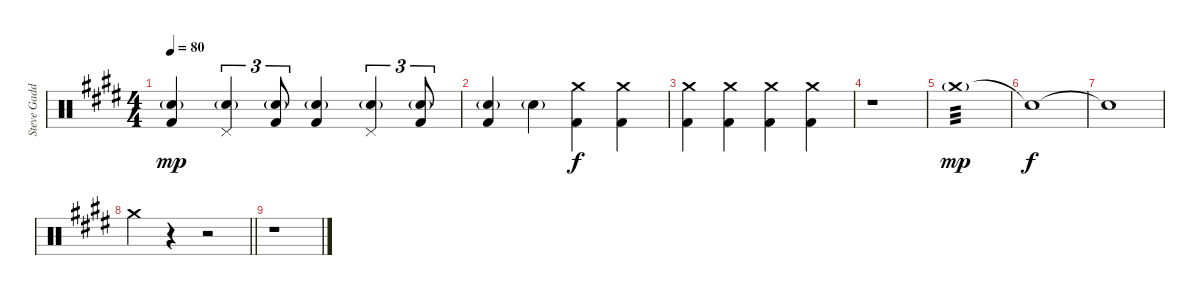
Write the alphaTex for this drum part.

\track ("Steve Gadd Drums" "Steve Gadd") {instrument percussion}
\staff {score}
\articulation defaults
\ts (4 4)
\tempo 80
\clef neutral
\ks e
("Snare (hit) 2"{g} "Kick (hit) 2").4{dy mp} ("Snare (hit) 2"{g} "Pedal Hi-Hat (hit)").4{tu (3 2)} ("Snare (hit) 2"{g} "Kick (hit) 2").8{tu (3 2)} ("Snare (hit) 2"{g} "Kick (hit) 2").4 ("Snare (hit) 2"{g} "Pedal Hi-Hat (hit)").4{tu (3 2)} ("Snare (hit) 2"{g} "Kick (hit) 2").8{tu (3 2)} |
("Snare (hit) 2"{g} "Kick (hit) 2").4 "Snare (hit) 2"{g}.4 ("Crash medium (hit)" "Kick (hit) 2").4{dy f} ("Crash medium (hit)" "Kick (hit) 2").4 |
("Crash medium (hit)" "Kick (hit) 2").4 ("Crash medium (hit)" "Kick (hit) 2").4 ("Crash medium (hit)" "Kick (hit) 2").4 ("Crash medium (hit)" "Kick (hit) 2").4 |
r.1 |
"Crash medium (hit)"{g}.1{tp 3 dy mp} |
"Snare (hit)"{t}.1{dy f} |
"Snare (hit)"{t}.1 |
\barLineRight lightlight "Crash medium (hit)".4
r.4 r.2 |
r.1
